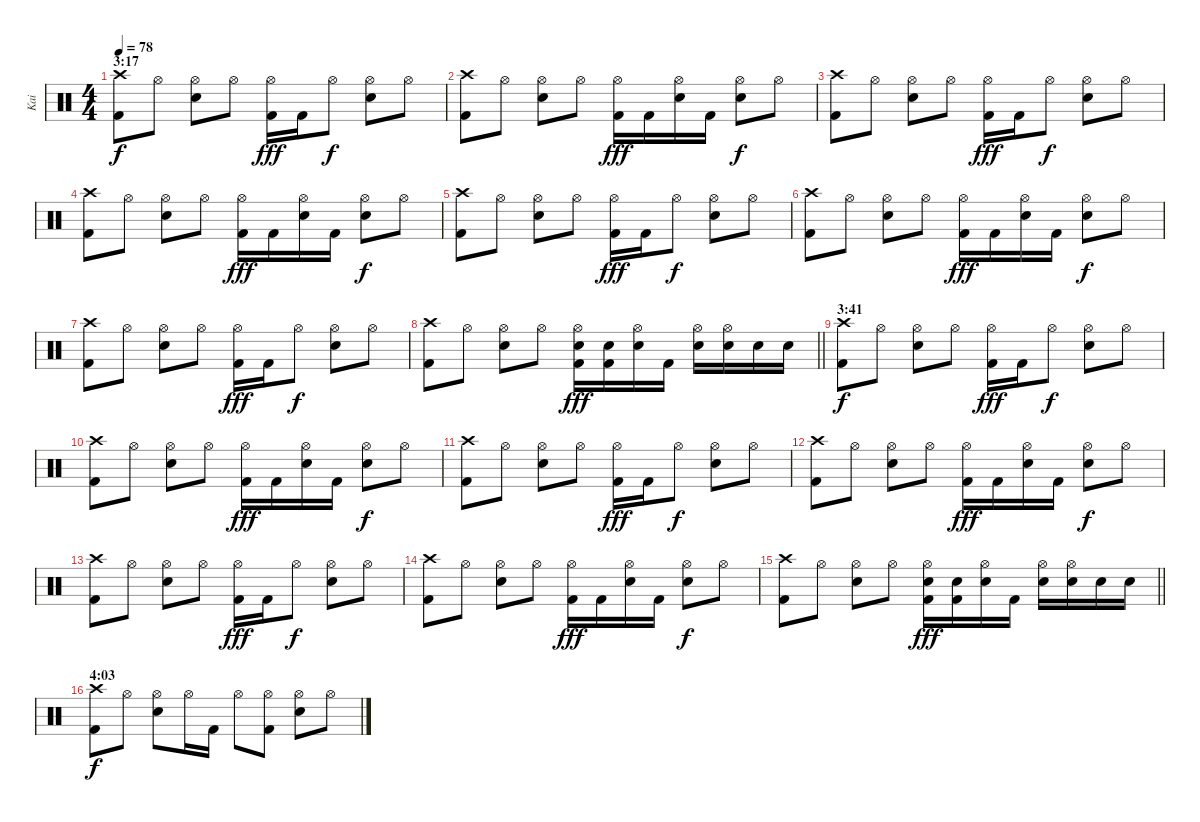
\track ("Kai" "Kai") {instrument percussion}
\staff {score}
\articulation defaults
\ts (4 4)
\section ("" "3:17")
\tempo 78
\clef neutral
\ks c
("Crash high (hit)" "Kick (hit) 2").8{dy f} "Hi-Hat (open)".8 ("Hi-Hat (open)" "Electric Snare (hit)").8 "Hi-Hat (open)".8 ("Hi-Hat (open)" "Kick (hit) 2").16{dy fff} "Kick (hit) 2".16 "Hi-Hat (open)".8{dy f} ("Hi-Hat (open)" "Electric Snare (hit)").8 "Hi-Hat (open)".8 |
("Crash high (hit)" "Kick (hit) 2").8 "Hi-Hat (open)".8 ("Hi-Hat (open)" "Electric Snare (hit)").8 "Hi-Hat (open)".8 ("Hi-Hat (open)" "Kick (hit) 2").16{dy fff} "Kick (hit) 2".16 ("Hi-Hat (open)" "Electric Snare (hit)").16 "Kick (hit) 2".16 ("Hi-Hat (open)" "Electric Snare (hit)").8{dy f} "Hi-Hat (open)".8 |
("Crash high (hit)" "Kick (hit) 2").8 "Hi-Hat (open)".8 ("Hi-Hat (open)" "Electric Snare (hit)").8 "Hi-Hat (open)".8 ("Hi-Hat (open)" "Kick (hit) 2").16{dy fff} "Kick (hit) 2".16 "Hi-Hat (open)".8{dy f} ("Hi-Hat (open)" "Electric Snare (hit)").8 "Hi-Hat (open)".8 |
("Crash high (hit)" "Kick (hit) 2").8 "Hi-Hat (open)".8 ("Hi-Hat (open)" "Electric Snare (hit)").8 "Hi-Hat (open)".8 ("Hi-Hat (open)" "Kick (hit) 2").16{dy fff} "Kick (hit) 2".16 ("Hi-Hat (open)" "Electric Snare (hit)").16 "Kick (hit) 2".16 ("Hi-Hat (open)" "Electric Snare (hit)").8{dy f} "Hi-Hat (open)".8 |
("Crash high (hit)" "Kick (hit) 2").8 "Hi-Hat (open)".8 ("Hi-Hat (open)" "Electric Snare (hit)").8 "Hi-Hat (open)".8 ("Hi-Hat (open)" "Kick (hit) 2").16{dy fff} "Kick (hit) 2".16 "Hi-Hat (open)".8{dy f} ("Hi-Hat (open)" "Electric Snare (hit)").8 "Hi-Hat (open)".8 |
("Crash high (hit)" "Kick (hit) 2").8 "Hi-Hat (open)".8 ("Hi-Hat (open)" "Electric Snare (hit)").8 "Hi-Hat (open)".8 ("Hi-Hat (open)" "Kick (hit) 2").16{dy fff} "Kick (hit) 2".16 ("Hi-Hat (open)" "Electric Snare (hit)").16 "Kick (hit) 2".16 ("Hi-Hat (open)" "Electric Snare (hit)").8{dy f} "Hi-Hat (open)".8 |
("Crash high (hit)" "Kick (hit) 2").8 "Hi-Hat (open)".8 ("Hi-Hat (open)" "Electric Snare (hit)").8 "Hi-Hat (open)".8 ("Hi-Hat (open)" "Kick (hit) 2").16{dy fff} "Kick (hit) 2".16 "Hi-Hat (open)".8{dy f} ("Hi-Hat (open)" "Electric Snare (hit)").8 "Hi-Hat (open)".8 |
\barLineRight lightlight
("Crash high (hit)" "Kick (hit) 2").8 "Hi-Hat (open)".8 ("Hi-Hat (open)" "Electric Snare (hit)").8 "Hi-Hat (open)".8 ("Hi-Hat (open)" "Electric Snare (hit)" "Kick (hit) 2").16{dy fff} ("Electric Snare (hit)" "Kick (hit) 2").16 ("Hi-Hat (open)" "Electric Snare (hit)").16 "Kick (hit) 2".16 ("Hi-Hat (open)" "Electric Snare (hit)").16 ("Hi-Hat (open)" "Electric Snare (hit)").16 "Electric Snare (hit)".16 "Electric Snare (hit)".16 |
\section ("" "3:41")
("Crash high (hit)" "Kick (hit) 2").8{dy f} "Hi-Hat (open)".8 ("Hi-Hat (open)" "Electric Snare (hit)").8 "Hi-Hat (open)".8 ("Hi-Hat (open)" "Kick (hit) 2").16{dy fff} "Kick (hit) 2".16 "Hi-Hat (open)".8{dy f} ("Hi-Hat (open)" "Electric Snare (hit)").8 "Hi-Hat (open)".8 |
("Crash high (hit)" "Kick (hit) 2").8 "Hi-Hat (open)".8 ("Hi-Hat (open)" "Electric Snare (hit)").8 "Hi-Hat (open)".8 ("Hi-Hat (open)" "Kick (hit) 2").16{dy fff} "Kick (hit) 2".16 ("Hi-Hat (open)" "Electric Snare (hit)").16 "Kick (hit) 2".16 ("Hi-Hat (open)" "Electric Snare (hit)").8{dy f} "Hi-Hat (open)".8 |
("Crash high (hit)" "Kick (hit) 2").8 "Hi-Hat (open)".8 ("Hi-Hat (open)" "Electric Snare (hit)").8 "Hi-Hat (open)".8 ("Hi-Hat (open)" "Kick (hit) 2").16{dy fff} "Kick (hit) 2".16 "Hi-Hat (open)".8{dy f} ("Hi-Hat (open)" "Electric Snare (hit)").8 "Hi-Hat (open)".8 |
("Crash high (hit)" "Kick (hit) 2").8 "Hi-Hat (open)".8 ("Hi-Hat (open)" "Electric Snare (hit)").8 "Hi-Hat (open)".8 ("Hi-Hat (open)" "Kick (hit) 2").16{dy fff} "Kick (hit) 2".16 ("Hi-Hat (open)" "Electric Snare (hit)").16 "Kick (hit) 2".16 ("Hi-Hat (open)" "Electric Snare (hit)").8{dy f} "Hi-Hat (open)".8 |
("Crash high (hit)" "Kick (hit) 2").8 "Hi-Hat (open)".8 ("Hi-Hat (open)" "Electric Snare (hit)").8 "Hi-Hat (open)".8 ("Hi-Hat (open)" "Kick (hit) 2").16{dy fff} "Kick (hit) 2".16 "Hi-Hat (open)".8{dy f} ("Hi-Hat (open)" "Electric Snare (hit)").8 "Hi-Hat (open)".8 |
("Crash high (hit)" "Kick (hit) 2").8 "Hi-Hat (open)".8 ("Hi-Hat (open)" "Electric Snare (hit)").8 "Hi-Hat (open)".8 ("Hi-Hat (open)" "Kick (hit) 2").16{dy fff} "Kick (hit) 2".16 ("Hi-Hat (open)" "Electric Snare (hit)").16 "Kick (hit) 2".16 ("Hi-Hat (open)" "Electric Snare (hit)").8{dy f} "Hi-Hat (open)".8 |
\barLineRight lightlight
("Crash high (hit)" "Kick (hit) 2").8 "Hi-Hat (open)".8 ("Hi-Hat (open)" "Electric Snare (hit)").8 "Hi-Hat (open)".8 ("Hi-Hat (open)" "Electric Snare (hit)" "Kick (hit) 2").16{dy fff} ("Electric Snare (hit)" "Kick (hit) 2").16 ("Hi-Hat (open)" "Electric Snare (hit)").16 "Kick (hit) 2".16 ("Hi-Hat (open)" "Electric Snare (hit)").16 ("Hi-Hat (open)" "Electric Snare (hit)").16 "Electric Snare (hit)".16 "Electric Snare (hit)".16 |
\section ("" "4:03")
("Crash high (hit)" "Kick (hit) 2").8{dy f} "Hi-Hat (open)".8 ("Hi-Hat (open)" "Electric Snare (hit)").8 "Hi-Hat (open)".16 "Kick (hit) 2".16 "Hi-Hat (open)".8 ("Hi-Hat (open)" "Kick (hit) 2").8 ("Hi-Hat (open)" "Electric Snare (hit)").8 "Hi-Hat (open)".8
